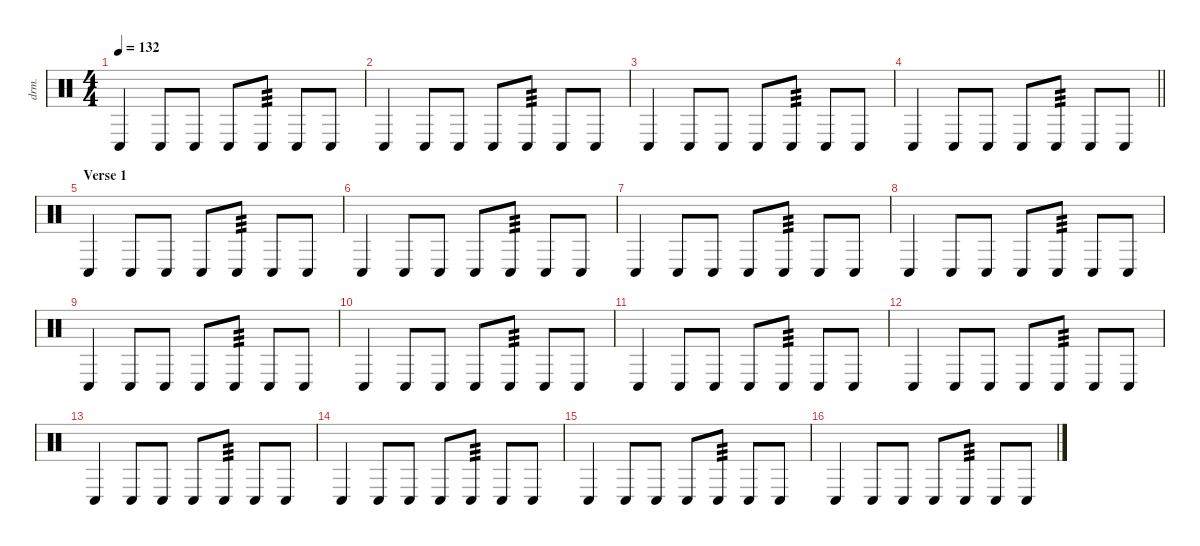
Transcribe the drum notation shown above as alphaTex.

\defaultSystemsLayout 4
\hideDynamics
\bracketExtendMode nobrackets
\otherSystemsTrackNameOrientation horizontal
\track ("Percussion" "drm.") {instrument percussion}
\staff {score}
\articulation defaults
\ts (4 4)
\tempo 132
\clef neutral
\ks c "Conga low (hit)".4{dy f beam Up} "Conga low (hit)".8{beam Up} "Conga low (hit)".8{beam Up} "Conga low (hit)".8{beam Up} "Conga low (hit)".8{tp 3 beam Up} "Conga low (hit)".8{beam Up} "Conga low (hit)".8{beam Up}
|
"Conga low (hit)".4{beam Up} "Conga low (hit)".8{beam Up} "Conga low (hit)".8{beam Up} "Conga low (hit)".8{beam Up} "Conga low (hit)".8{tp 3 beam Up} "Conga low (hit)".8{beam Up} "Conga low (hit)".8{beam Up} |
"Conga low (hit)".4{beam Up} "Conga low (hit)".8{beam Up} "Conga low (hit)".8{beam Up} "Conga low (hit)".8{beam Up} "Conga low (hit)".8{tp 3 beam Up} "Conga low (hit)".8{beam Up} "Conga low (hit)".8{beam Up} |
\barLineRight lightlight "Conga low (hit)".4{beam Up} "Conga low (hit)".8{beam Up} "Conga low (hit)".8{beam Up} "Conga low (hit)".8{beam Up} "Conga low (hit)".8{tp 3 beam Up} "Conga low (hit)".8{beam Up} "Conga low (hit)".8{beam Up}
|
\section ("" "Verse 1")
"Conga low (hit)".4{beam Up} "Conga low (hit)".8{beam Up} "Conga low (hit)".8{beam Up} "Conga low (hit)".8{beam Up} "Conga low (hit)".8{tp 3 beam Up} "Conga low (hit)".8{beam Up} "Conga low (hit)".8{beam Up} |
"Conga low (hit)".4{beam Up} "Conga low (hit)".8{beam Up} "Conga low (hit)".8{beam Up} "Conga low (hit)".8{beam Up} "Conga low (hit)".8{tp 3 beam Up} "Conga low (hit)".8{beam Up} "Conga low (hit)".8{beam Up} |
"Conga low (hit)".4{beam Up} "Conga low (hit)".8{beam Up} "Conga low (hit)".8{beam Up} "Conga low (hit)".8{beam Up} "Conga low (hit)".8{tp 3 beam Up} "Conga low (hit)".8{beam Up} "Conga low (hit)".8{beam Up} |
"Conga low (hit)".4{beam Up} "Conga low (hit)".8{beam Up} "Conga low (hit)".8{beam Up} "Conga low (hit)".8{beam Up} "Conga low (hit)".8{tp 3 beam Up} "Conga low (hit)".8{beam Up} "Conga low (hit)".8{beam Up} |
"Conga low (hit)".4{beam Up} "Conga low (hit)".8{beam Up} "Conga low (hit)".8{beam Up} "Conga low (hit)".8{beam Up} "Conga low (hit)".8{tp 3 beam Up} "Conga low (hit)".8{beam Up} "Conga low (hit)".8{beam Up} |
"Conga low (hit)".4{beam Up} "Conga low (hit)".8{beam Up} "Conga low (hit)".8{beam Up} "Conga low (hit)".8{beam Up} "Conga low (hit)".8{tp 3 beam Up} "Conga low (hit)".8{beam Up} "Conga low (hit)".8{beam Up} |
"Conga low (hit)".4{beam Up} "Conga low (hit)".8{beam Up} "Conga low (hit)".8{beam Up} "Conga low (hit)".8{beam Up} "Conga low (hit)".8{tp 3 beam Up} "Conga low (hit)".8{beam Up} "Conga low (hit)".8{beam Up} |
"Conga low (hit)".4{beam Up} "Conga low (hit)".8{beam Up} "Conga low (hit)".8{beam Up} "Conga low (hit)".8{beam Up} "Conga low (hit)".8{tp 3 beam Up} "Conga low (hit)".8{beam Up} "Conga low (hit)".8{beam Up} |
"Conga low (hit)".4{beam Up} "Conga low (hit)".8{beam Up} "Conga low (hit)".8{beam Up} "Conga low (hit)".8{beam Up} "Conga low (hit)".8{tp 3 beam Up} "Conga low (hit)".8{beam Up} "Conga low (hit)".8{beam Up} |
"Conga low (hit)".4{beam Up} "Conga low (hit)".8{beam Up} "Conga low (hit)".8{beam Up} "Conga low (hit)".8{beam Up} "Conga low (hit)".8{tp 3 beam Up} "Conga low (hit)".8{beam Up} "Conga low (hit)".8{beam Up} |
"Conga low (hit)".4{beam Up} "Conga low (hit)".8{beam Up} "Conga low (hit)".8{beam Up} "Conga low (hit)".8{beam Up} "Conga low (hit)".8{tp 3 beam Up} "Conga low (hit)".8{beam Up} "Conga low (hit)".8{beam Up} |
"Conga low (hit)".4{beam Up} "Conga low (hit)".8{beam Up} "Conga low (hit)".8{beam Up} "Conga low (hit)".8{beam Up} "Conga low (hit)".8{tp 3 beam Up} "Conga low (hit)".8{beam Up} "Conga low (hit)".8{beam Up}
